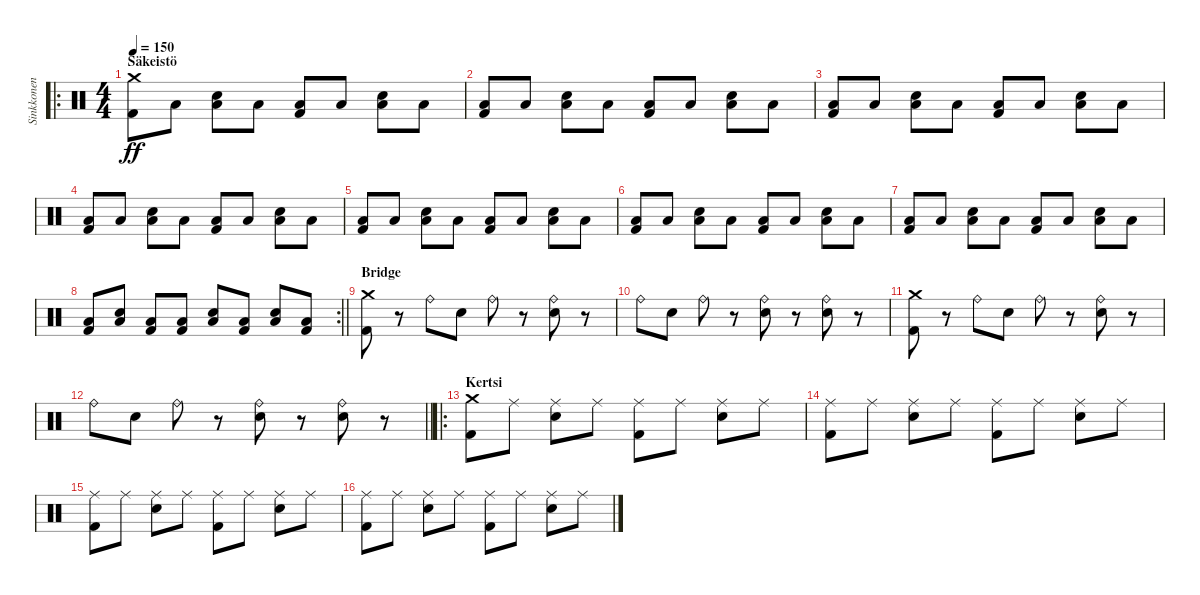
\track ("Sinkkonen" "Sinkkonen") {instrument percussion}
\staff {score}
\articulation defaults
\ro
\ts (4 4)
\section ("" "Säkeistö")
\tempo 150
\clef neutral
\ks c
("Crash medium (hit)" "Kick (hit) 2").8{dy ff} "Low Floor Tom (hit)".8 ("Snare (hit) 2" "Low Floor Tom (hit)").8 "Low Floor Tom (hit)".8 ("Low Floor Tom (hit)" "Kick (hit) 2").8 "Low Floor Tom (hit)".8 ("Snare (hit) 2" "Low Floor Tom (hit)").8 "Low Floor Tom (hit)".8 |
("Low Floor Tom (hit)" "Kick (hit) 2").8 "Low Floor Tom (hit)".8 ("Snare (hit) 2" "Low Floor Tom (hit)").8 "Low Floor Tom (hit)".8 ("Low Floor Tom (hit)" "Kick (hit) 2").8 "Low Floor Tom (hit)".8 ("Snare (hit) 2" "Low Floor Tom (hit)").8 "Low Floor Tom (hit)".8 |
("Low Floor Tom (hit)" "Kick (hit) 2").8 "Low Floor Tom (hit)".8 ("Snare (hit) 2" "Low Floor Tom (hit)").8 "Low Floor Tom (hit)".8 ("Low Floor Tom (hit)" "Kick (hit) 2").8 "Low Floor Tom (hit)".8 ("Snare (hit) 2" "Low Floor Tom (hit)").8 "Low Floor Tom (hit)".8 |
("Low Floor Tom (hit)" "Kick (hit) 2").8 "Low Floor Tom (hit)".8 ("Snare (hit) 2" "Low Floor Tom (hit)").8 "Low Floor Tom (hit)".8 ("Low Floor Tom (hit)" "Kick (hit) 2").8 "Low Floor Tom (hit)".8 ("Snare (hit) 2" "Low Floor Tom (hit)").8 "Low Floor Tom (hit)".8 |
("Low Floor Tom (hit)" "Kick (hit) 2").8 "Low Floor Tom (hit)".8 ("Snare (hit) 2" "Low Floor Tom (hit)").8 "Low Floor Tom (hit)".8 ("Low Floor Tom (hit)" "Kick (hit) 2").8 "Low Floor Tom (hit)".8 ("Snare (hit) 2" "Low Floor Tom (hit)").8 "Low Floor Tom (hit)".8 |
("Low Floor Tom (hit)" "Kick (hit) 2").8 "Low Floor Tom (hit)".8 ("Snare (hit) 2" "Low Floor Tom (hit)").8 "Low Floor Tom (hit)".8 ("Low Floor Tom (hit)" "Kick (hit) 2").8 "Low Floor Tom (hit)".8 ("Snare (hit) 2" "Low Floor Tom (hit)").8 "Low Floor Tom (hit)".8 |
("Low Floor Tom (hit)" "Kick (hit) 2").8 "Low Floor Tom (hit)".8 ("Snare (hit) 2" "Low Floor Tom (hit)").8 "Low Floor Tom (hit)".8 ("Low Floor Tom (hit)" "Kick (hit) 2").8 "Low Floor Tom (hit)".8 ("Snare (hit) 2" "Low Floor Tom (hit)").8 "Low Floor Tom (hit)".8 |
\rc 2
\barLineRight lightlight
("Low Floor Tom (hit)" "Kick (hit) 2").8 ("Snare (hit) 2" "Low Floor Tom (hit)").8 ("Low Floor Tom (hit)" "Kick (hit) 2").8 ("Low Floor Tom (hit)" "Kick (hit) 2").8 ("Snare (hit) 2" "Low Floor Tom (hit)").8 ("Low Floor Tom (hit)" "Kick (hit) 2").8 ("Snare (hit) 2" "Low Floor Tom (hit)").8 ("Low Floor Tom (hit)" "Kick (hit) 2").8 |
\section ("" "Bridge")
("Crash medium (hit)" "Kick (hit) 2").8 r.8 "Ride (bell)".8 "Snare (hit) 2".8 "Ride (bell)".8 r.8 ("Ride (bell)" "Snare (hit) 2").8 r.8 |
"Ride (bell)".8 "Snare (hit) 2".8 "Ride (bell)".8 r.8 ("Ride (bell)" "Snare (hit) 2").8 r.8 ("Ride (bell)" "Snare (hit) 2").8 r.8 |
("Crash medium (hit)" "Kick (hit) 2").8 r.8 "Ride (bell)".8 "Snare (hit) 2".8 "Ride (bell)".8 r.8 ("Ride (bell)" "Snare (hit) 2").8 r.8 |
\barLineRight lightlight "Ride (bell)".8 "Snare (hit) 2".8 "Ride (bell)".8
r.8 ("Ride (bell)" "Snare (hit) 2").8 r.8 ("Ride (bell)" "Snare (hit) 2").8 r.8 |
\ro
\section ("" "Kertsi")
("Crash medium (hit)" "Kick (hit) 2").8 "Ride (middle)".8 ("Ride (middle)" "Snare (hit) 2").8 "Ride (middle)".8 ("Ride (middle)" "Kick (hit) 2").8 "Ride (middle)".8 ("Ride (middle)" "Snare (hit) 2").8 "Ride (middle)".8 |
("Ride (middle)" "Kick (hit) 2").8 "Ride (middle)".8 ("Ride (middle)" "Snare (hit) 2").8 "Ride (middle)".8 ("Ride (middle)" "Kick (hit) 2").8 "Ride (middle)".8 ("Ride (middle)" "Snare (hit) 2").8 "Ride (middle)".8 |
("Ride (middle)" "Kick (hit) 2").8 "Ride (middle)".8 ("Ride (middle)" "Snare (hit) 2").8 "Ride (middle)".8 ("Ride (middle)" "Kick (hit) 2").8 "Ride (middle)".8 ("Ride (middle)" "Snare (hit) 2").8 "Ride (middle)".8 |
("Ride (middle)" "Kick (hit) 2").8 "Ride (middle)".8 ("Ride (middle)" "Snare (hit) 2").8 "Ride (middle)".8 ("Ride (middle)" "Kick (hit) 2").8 "Ride (middle)".8 ("Ride (middle)" "Snare (hit) 2").8 "Ride (middle)".8
